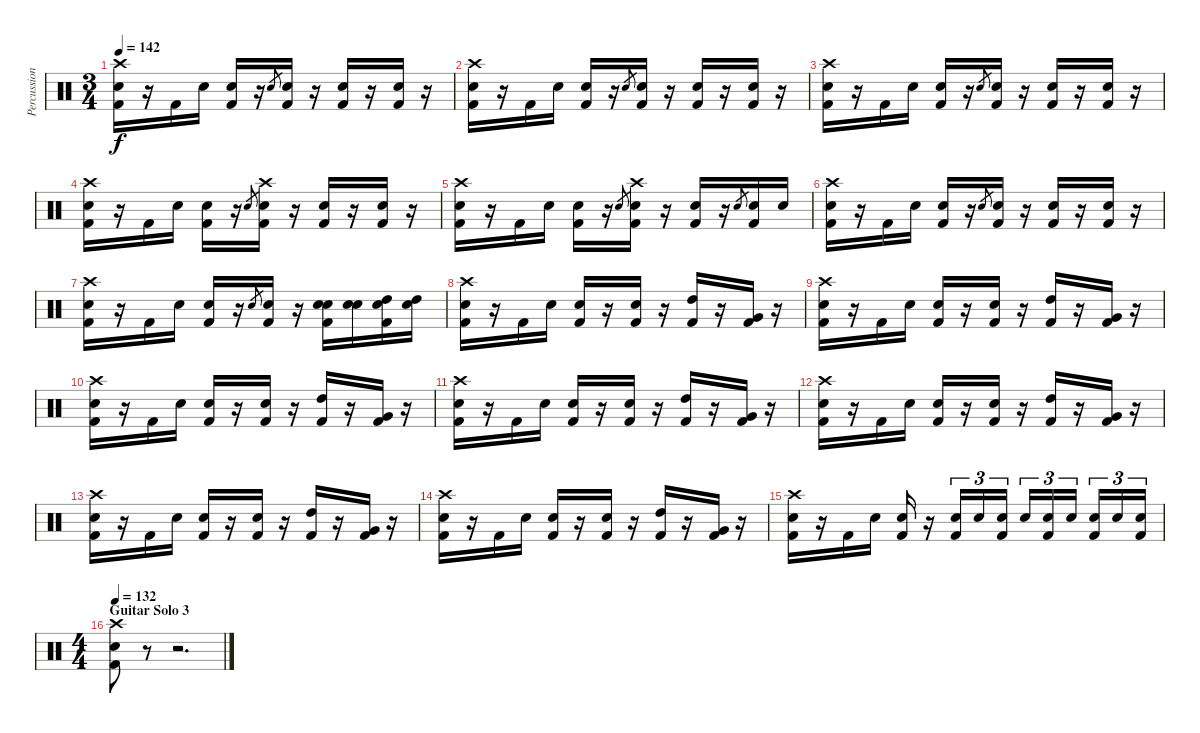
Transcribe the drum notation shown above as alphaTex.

\track ("Percussion" "Percussion") {instrument percussion}
\staff {score}
\articulation defaults
\ts (3 4)
\tempo 142
\clef neutral
\ks c
("Crash high (hit)" "Snare (hit) 2" "Kick (hit) 2").16{dy f} r.16 "Kick (hit) 2".16 "Snare (hit) 2".16 ("Snare (hit) 2" "Kick (hit) 2").16 r.16 "Snare (hit) 2".8{gr} ("Snare (hit) 2" "Kick (hit) 2").16 r.16 ("Snare (hit) 2" "Kick (hit) 2").16 r.16 ("Snare (hit) 2" "Kick (hit) 2").16 r.16 |
("Crash high (hit)" "Snare (hit) 2" "Kick (hit) 2").16 r.16 "Kick (hit) 2".16 "Snare (hit) 2".16 ("Snare (hit) 2" "Kick (hit) 2").16 r.16 "Snare (hit) 2".8{gr} ("Snare (hit) 2" "Kick (hit) 2").16 r.16 ("Snare (hit) 2" "Kick (hit) 2").16 r.16 ("Snare (hit) 2" "Kick (hit) 2").16 r.16 |
("Crash high (hit)" "Snare (hit) 2" "Kick (hit) 2").16 r.16 "Kick (hit) 2".16 "Snare (hit) 2".16 ("Snare (hit) 2" "Kick (hit) 2").16 r.16 "Snare (hit) 2".8{gr} ("Snare (hit) 2" "Kick (hit) 2").16 r.16 ("Snare (hit) 2" "Kick (hit) 2").16 r.16 ("Electric Snare (hit)" "Kick (hit) 2").16 r.16 |
("Crash high (hit)" "Snare (hit) 2" "Kick (hit) 2").16 r.16 "Kick (hit) 2".16 "Snare (hit) 2".16 ("Snare (hit) 2" "Kick (hit) 2").16 r.16 "Snare (hit) 2".8{gr} ("Crash high (hit)" "Snare (hit) 2" "Kick (hit) 2").16 r.16 ("Snare (hit) 2" "Kick (hit) 2").16 r.16 ("Snare (hit) 2" "Kick (hit) 2").16 r.16 |
("Crash high (hit)" "Snare (hit) 2" "Kick (hit) 2").16 r.16 "Kick (hit) 2".16 "Snare (hit) 2".16 ("Snare (hit) 2" "Kick (hit) 2").16 r.16 "Snare (hit) 2".8{gr} ("Crash high (hit)" "Snare (hit) 2" "Kick (hit) 2").16 r.16 ("Snare (hit) 2" "Kick (hit) 2").16 r.16 "Snare (hit) 2".8{gr} ("Snare (hit) 2" "Kick (hit) 2").16 "Electric Snare (hit)".16 |
("Crash high (hit)" "Snare (hit) 2" "Kick (hit) 2").16 r.16 "Kick (hit) 2".16 "Snare (hit) 2".16 ("Snare (hit) 2" "Kick (hit) 2").16 r.16 "Snare (hit) 2".8{gr} ("Snare (hit) 2" "Kick (hit) 2").16 r.16 ("Snare (hit) 2" "Kick (hit) 2").16 r.16 ("Snare (hit) 2" "Kick (hit) 2").16 r.16 |
("Crash high (hit)" "Snare (hit) 2" "Kick (hit) 2").16 r.16 "Kick (hit) 2".16 "Snare (hit) 2".16 ("Snare (hit) 2" "Kick (hit) 2").16 r.16 "Snare (hit) 2".8{gr} ("Snare (hit) 2" "Kick (hit) 2").16 r.16 ("Snare (hit) 2" "Electric Snare (hit)" "Kick (hit) 2").16 ("Snare (hit) 2" "Electric Snare (hit)").16 ("Snare (hit) 2" "High Tom (hit)" "Kick (hit) 2").16 ("Snare (hit) 2" "High Tom (hit)").16 |
("Crash high (hit)" "Snare (hit) 2" "Kick (hit) 2").16 r.16 "Kick (hit) 2".16 "Snare (hit) 2".16 ("Snare (hit) 2" "Kick (hit) 2").16 r.16 ("Snare (hit) 2" "Kick (hit) 2").16 r.16 ("High Tom (hit)" "Kick (hit) 2").16 r.16 ("Very Low Tom (hit)" "Kick (hit) 2").16 r.16 |
("Crash high (hit)" "Snare (hit) 2" "Kick (hit) 2").16 r.16 "Kick (hit) 2".16 "Snare (hit) 2".16 ("Snare (hit) 2" "Kick (hit) 2").16 r.16 ("Snare (hit) 2" "Kick (hit) 2").16 r.16 ("High Tom (hit)" "Kick (hit) 2").16 r.16 ("Very Low Tom (hit)" "Kick (hit) 2").16 r.16 |
("Crash high (hit)" "Snare (hit) 2" "Kick (hit) 2").16 r.16 "Kick (hit) 2".16 "Snare (hit) 2".16 ("Snare (hit) 2" "Kick (hit) 2").16 r.16 ("Snare (hit) 2" "Kick (hit) 2").16 r.16 ("High Tom (hit)" "Kick (hit) 2").16 r.16 ("Very Low Tom (hit)" "Kick (hit) 2").16 r.16 |
("Crash high (hit)" "Snare (hit) 2" "Kick (hit) 2").16 r.16 "Kick (hit) 2".16 "Snare (hit) 2".16 ("Snare (hit) 2" "Kick (hit) 2").16 r.16 ("Snare (hit) 2" "Kick (hit) 2").16 r.16 ("High Tom (hit)" "Kick (hit) 2").16 r.16 ("Very Low Tom (hit)" "Kick (hit) 2").16 r.16 |
("Crash high (hit)" "Snare (hit) 2" "Kick (hit) 2").16 r.16 "Kick (hit) 2".16 "Snare (hit) 2".16 ("Snare (hit) 2" "Kick (hit) 2").16 r.16 ("Snare (hit) 2" "Kick (hit) 2").16 r.16 ("High Tom (hit)" "Kick (hit) 2").16 r.16 ("Very Low Tom (hit)" "Kick (hit) 2").16 r.16 |
("Crash high (hit)" "Snare (hit) 2" "Kick (hit) 2").16 r.16 "Kick (hit) 2".16 "Snare (hit) 2".16 ("Snare (hit) 2" "Kick (hit) 2").16 r.16 ("Snare (hit) 2" "Kick (hit) 2").16 r.16 ("High Tom (hit)" "Kick (hit) 2").16 r.16 ("Very Low Tom (hit)" "Kick (hit) 2").16 r.16 |
("Crash high (hit)" "Snare (hit) 2" "Kick (hit) 2").16 r.16 "Kick (hit) 2".16 "Snare (hit) 2".16 ("Snare (hit) 2" "Kick (hit) 2").16 r.16 ("Snare (hit) 2" "Kick (hit) 2").16 r.16 ("High Tom (hit)" "Kick (hit) 2").16 r.16 ("Very Low Tom (hit)" "Kick (hit) 2").16 r.16 |
("Crash high (hit)" "Snare (hit) 2" "Kick (hit) 2").16 r.16 "Kick (hit) 2".16 "Snare (hit) 2".16 ("Snare (hit) 2" "Kick (hit) 2").16 r.16 ("Snare (hit) 2" "Kick (hit) 2").16{tu (3 2)} "Snare (hit) 2".16{tu (3 2)} ("Snare (hit) 2" "Kick (hit) 2").16{tu (3 2)} "Snare (hit) 2".16{tu (3 2)} ("Snare (hit) 2" "Kick (hit) 2").16{tu (3 2)} "Snare (hit) 2".16{tu (3 2)} ("Snare (hit) 2" "Kick (hit) 2").16{tu (3 2)} "Snare (hit) 2".16{tu (3 2)} ("Snare (hit) 2" "Kick (hit) 2").16{tu (3 2)} |
\ts (4 4)
\section ("" "Guitar Solo 3")
\tempo 132
("Crash high (hit)" "Electric Snare (hit)" "Kick (hit) 2").8 r.8 r.2{d}
